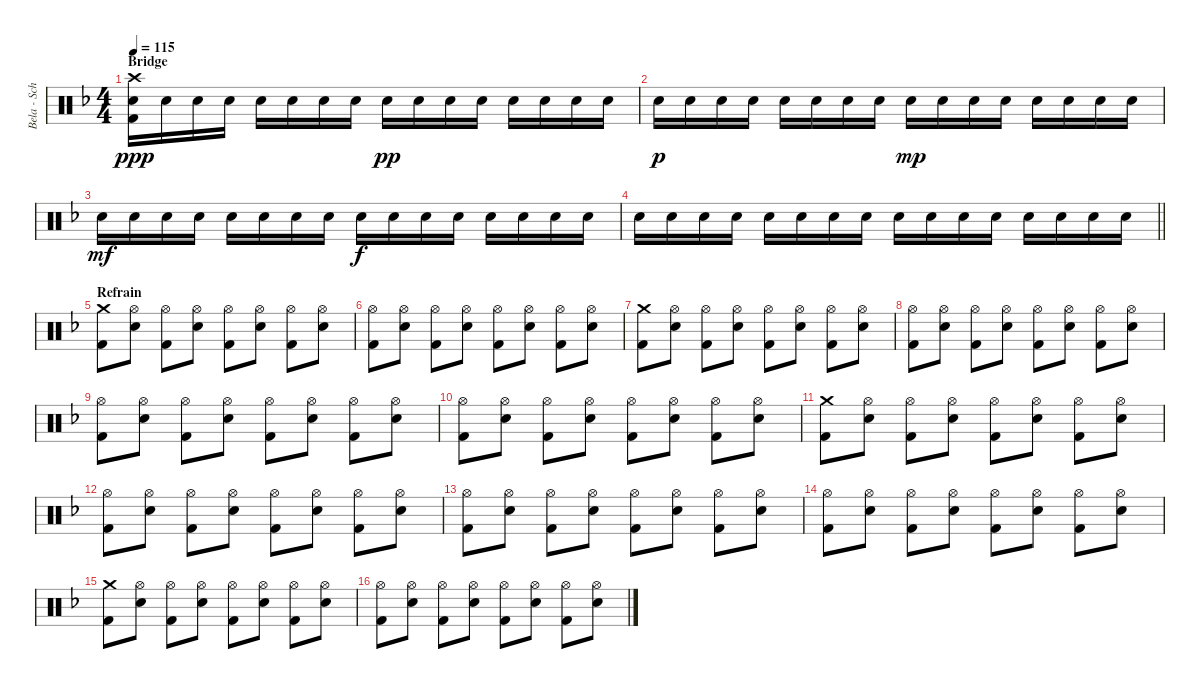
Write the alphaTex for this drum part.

\track ("Bela - Schlagzeug" "Bela - Sch") {instrument percussion}
\staff {score}
\articulation defaults
\ts (4 4)
\section ("" "Bridge")
\tempo 115
\clef neutral
\ks f
("Crash high (hit)" "Snare (hit) 2" "Kick (hit) 2").16{dy ppp} "Snare (hit) 2".16 "Snare (hit) 2".16 "Snare (hit) 2".16 "Snare (hit) 2".16 "Snare (hit) 2".16 "Snare (hit) 2".16 "Snare (hit) 2".16 "Snare (hit) 2".16{dy pp} "Snare (hit) 2".16 "Snare (hit) 2".16 "Snare (hit) 2".16 "Snare (hit) 2".16 "Snare (hit) 2".16 "Snare (hit) 2".16 "Snare (hit) 2".16 |
"Snare (hit) 2".16{dy p} "Snare (hit) 2".16 "Snare (hit) 2".16 "Snare (hit) 2".16 "Snare (hit) 2".16 "Snare (hit) 2".16 "Snare (hit) 2".16 "Snare (hit) 2".16 "Snare (hit) 2".16{dy mp} "Snare (hit) 2".16 "Snare (hit) 2".16 "Snare (hit) 2".16 "Snare (hit) 2".16 "Snare (hit) 2".16 "Snare (hit) 2".16 "Snare (hit) 2".16 |
"Snare (hit) 2".16{dy mf} "Snare (hit) 2".16 "Snare (hit) 2".16 "Snare (hit) 2".16 "Snare (hit) 2".16 "Snare (hit) 2".16 "Snare (hit) 2".16 "Snare (hit) 2".16 "Snare (hit) 2".16{dy f} "Snare (hit) 2".16 "Snare (hit) 2".16 "Snare (hit) 2".16 "Snare (hit) 2".16 "Snare (hit) 2".16 "Snare (hit) 2".16 "Snare (hit) 2".16 |
\barLineRight lightlight "Snare (hit) 2".16 "Snare (hit) 2".16 "Snare (hit) 2".16 "Snare (hit) 2".16 "Snare (hit) 2".16 "Snare (hit) 2".16 "Snare (hit) 2".16 "Snare (hit) 2".16 "Snare (hit) 2".16 "Snare (hit) 2".16 "Snare (hit) 2".16 "Snare (hit) 2".16 "Snare (hit) 2".16 "Snare (hit) 2".16 "Snare (hit) 2".16 "Snare (hit) 2".16
|
\section ("" "Refrain")
("Crash medium (hit)" "Kick (hit) 2").8 ("Hi-Hat (open)" "Snare (hit) 2").8 ("Hi-Hat (open)" "Kick (hit) 2").8 ("Hi-Hat (open)" "Snare (hit) 2").8 ("Hi-Hat (open)" "Kick (hit) 2").8 ("Hi-Hat (open)" "Snare (hit) 2").8 ("Hi-Hat (open)" "Kick (hit) 2").8 ("Hi-Hat (open)" "Snare (hit) 2").8 |
("Hi-Hat (open)" "Kick (hit) 2").8 ("Hi-Hat (open)" "Snare (hit) 2").8 ("Hi-Hat (open)" "Kick (hit) 2").8 ("Hi-Hat (open)" "Snare (hit) 2").8 ("Hi-Hat (open)" "Kick (hit) 2").8 ("Hi-Hat (open)" "Snare (hit) 2").8 ("Hi-Hat (open)" "Kick (hit) 2").8 ("Hi-Hat (open)" "Snare (hit) 2").8 |
("Crash medium (hit)" "Kick (hit) 2").8 ("Hi-Hat (open)" "Snare (hit) 2").8 ("Hi-Hat (open)" "Kick (hit) 2").8 ("Hi-Hat (open)" "Snare (hit) 2").8 ("Hi-Hat (open)" "Kick (hit) 2").8 ("Hi-Hat (open)" "Snare (hit) 2").8 ("Hi-Hat (open)" "Kick (hit) 2").8 ("Hi-Hat (open)" "Snare (hit) 2").8 |
("Hi-Hat (open)" "Kick (hit) 2").8 ("Hi-Hat (open)" "Snare (hit) 2").8 ("Hi-Hat (open)" "Kick (hit) 2").8 ("Hi-Hat (open)" "Snare (hit) 2").8 ("Hi-Hat (open)" "Kick (hit) 2").8 ("Hi-Hat (open)" "Snare (hit) 2").8 ("Hi-Hat (open)" "Kick (hit) 2").8 ("Hi-Hat (open)" "Snare (hit) 2").8 |
("Hi-Hat (open)" "Kick (hit) 2").8 ("Hi-Hat (open)" "Snare (hit) 2").8 ("Hi-Hat (open)" "Kick (hit) 2").8 ("Hi-Hat (open)" "Snare (hit) 2").8 ("Hi-Hat (open)" "Kick (hit) 2").8 ("Hi-Hat (open)" "Snare (hit) 2").8 ("Hi-Hat (open)" "Kick (hit) 2").8 ("Hi-Hat (open)" "Snare (hit) 2").8 |
("Hi-Hat (open)" "Kick (hit) 2").8 ("Hi-Hat (open)" "Snare (hit) 2").8 ("Hi-Hat (open)" "Kick (hit) 2").8 ("Hi-Hat (open)" "Snare (hit) 2").8 ("Hi-Hat (open)" "Kick (hit) 2").8 ("Hi-Hat (open)" "Snare (hit) 2").8 ("Hi-Hat (open)" "Kick (hit) 2").8 ("Hi-Hat (open)" "Snare (hit) 2").8 |
("Crash medium (hit)" "Kick (hit) 2").8 ("Hi-Hat (open)" "Snare (hit) 2").8 ("Hi-Hat (open)" "Kick (hit) 2").8 ("Hi-Hat (open)" "Snare (hit) 2").8 ("Hi-Hat (open)" "Kick (hit) 2").8 ("Hi-Hat (open)" "Snare (hit) 2").8 ("Hi-Hat (open)" "Kick (hit) 2").8 ("Hi-Hat (open)" "Snare (hit) 2").8 |
("Hi-Hat (open)" "Kick (hit) 2").8 ("Hi-Hat (open)" "Snare (hit) 2").8 ("Hi-Hat (open)" "Kick (hit) 2").8 ("Hi-Hat (open)" "Snare (hit) 2").8 ("Hi-Hat (open)" "Kick (hit) 2").8 ("Hi-Hat (open)" "Snare (hit) 2").8 ("Hi-Hat (open)" "Kick (hit) 2").8 ("Hi-Hat (open)" "Snare (hit) 2").8 |
("Hi-Hat (open)" "Kick (hit) 2").8 ("Hi-Hat (open)" "Snare (hit) 2").8 ("Hi-Hat (open)" "Kick (hit) 2").8 ("Hi-Hat (open)" "Snare (hit) 2").8 ("Hi-Hat (open)" "Kick (hit) 2").8 ("Hi-Hat (open)" "Snare (hit) 2").8 ("Hi-Hat (open)" "Kick (hit) 2").8 ("Hi-Hat (open)" "Snare (hit) 2").8 |
("Hi-Hat (open)" "Kick (hit) 2").8 ("Hi-Hat (open)" "Snare (hit) 2").8 ("Hi-Hat (open)" "Kick (hit) 2").8 ("Hi-Hat (open)" "Snare (hit) 2").8 ("Hi-Hat (open)" "Kick (hit) 2").8 ("Hi-Hat (open)" "Snare (hit) 2").8 ("Hi-Hat (open)" "Kick (hit) 2").8 ("Hi-Hat (open)" "Snare (hit) 2").8 |
("Crash medium (hit)" "Kick (hit) 2").8 ("Hi-Hat (open)" "Snare (hit) 2").8 ("Hi-Hat (open)" "Kick (hit) 2").8 ("Hi-Hat (open)" "Snare (hit) 2").8 ("Hi-Hat (open)" "Kick (hit) 2").8 ("Hi-Hat (open)" "Snare (hit) 2").8 ("Hi-Hat (open)" "Kick (hit) 2").8 ("Hi-Hat (open)" "Snare (hit) 2").8 |
("Hi-Hat (open)" "Kick (hit) 2").8 ("Hi-Hat (open)" "Snare (hit) 2").8 ("Hi-Hat (open)" "Kick (hit) 2").8 ("Hi-Hat (open)" "Snare (hit) 2").8 ("Hi-Hat (open)" "Kick (hit) 2").8 ("Hi-Hat (open)" "Snare (hit) 2").8 ("Hi-Hat (open)" "Kick (hit) 2").8 ("Hi-Hat (open)" "Snare (hit) 2").8
